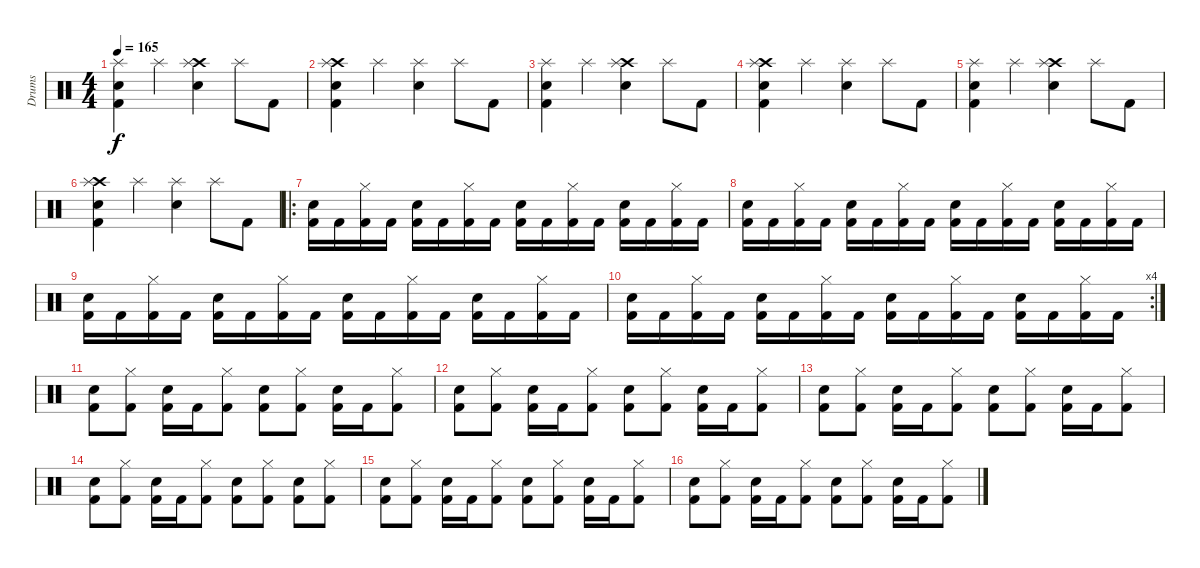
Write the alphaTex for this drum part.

\track ("Drums" "Drums") {instrument percussion}
\staff {score}
\articulation defaults
\ts (4 4)
\tempo 165
\clef neutral
\ks c
("Splash (hit)" "Snare (hit) 2" "Kick (hit) 2").4{dy f} "Splash (hit)".4 ("Crash high (hit)" "Splash (hit)" "Snare (hit) 2").4 "Splash (hit)".8 "Kick (hit) 2".8 |
("Crash high (hit)" "Splash (hit)" "Snare (hit) 2" "Kick (hit) 2").4 "Splash (hit)".4 ("Splash (hit)" "Snare (hit) 2").4 "Splash (hit)".8 "Kick (hit) 2".8 |
("Splash (hit)" "Snare (hit) 2" "Kick (hit) 2").4 "Splash (hit)".4 ("Crash high (hit)" "Splash (hit)" "Snare (hit) 2").4 "Splash (hit)".8 "Kick (hit) 2".8 |
("Crash high (hit)" "Splash (hit)" "Snare (hit) 2" "Kick (hit) 2").4 "Splash (hit)".4 ("Splash (hit)" "Snare (hit) 2").4 "Splash (hit)".8 "Kick (hit) 2".8 |
("Splash (hit)" "Snare (hit) 2" "Kick (hit) 2").4 "Splash (hit)".4 ("Crash high (hit)" "Splash (hit)" "Snare (hit) 2").4 "Splash (hit)".8 "Kick (hit) 2".8 |
("Crash high (hit)" "Splash (hit)" "Snare (hit) 2" "Kick (hit) 2").4 "Splash (hit)".4 ("Splash (hit)" "Snare (hit) 2").4 "Splash (hit)".8 "Kick (hit) 2".8 |
\ro
("Snare (hit) 2" "Kick (hit) 2").16 "Kick (hit) 2".16 ("Hi-Hat (closed)" "Kick (hit) 2").16 "Kick (hit) 2".16 ("Snare (hit) 2" "Kick (hit) 2").16 "Kick (hit) 2".16 ("Hi-Hat (closed)" "Kick (hit) 2").16 "Kick (hit) 2".16 ("Snare (hit) 2" "Kick (hit) 2").16 "Kick (hit) 2".16 ("Hi-Hat (closed)" "Kick (hit) 2").16 "Kick (hit) 2".16 ("Snare (hit) 2" "Kick (hit) 2").16 "Kick (hit) 2".16 ("Hi-Hat (closed)" "Kick (hit) 2").16 "Kick (hit) 2".16 |
("Snare (hit) 2" "Kick (hit) 2").16 "Kick (hit) 2".16 ("Hi-Hat (closed)" "Kick (hit) 2").16 "Kick (hit) 2".16 ("Snare (hit) 2" "Kick (hit) 2").16 "Kick (hit) 2".16 ("Hi-Hat (closed)" "Kick (hit) 2").16 "Kick (hit) 2".16 ("Snare (hit) 2" "Kick (hit) 2").16 "Kick (hit) 2".16 ("Hi-Hat (closed)" "Kick (hit) 2").16 "Kick (hit) 2".16 ("Snare (hit) 2" "Kick (hit) 2").16 "Kick (hit) 2".16 ("Hi-Hat (closed)" "Kick (hit) 2").16 "Kick (hit) 2".16 |
("Snare (hit) 2" "Kick (hit) 2").16 "Kick (hit) 2".16 ("Hi-Hat (closed)" "Kick (hit) 2").16 "Kick (hit) 2".16 ("Snare (hit) 2" "Kick (hit) 2").16 "Kick (hit) 2".16 ("Hi-Hat (closed)" "Kick (hit) 2").16 "Kick (hit) 2".16 ("Snare (hit) 2" "Kick (hit) 2").16 "Kick (hit) 2".16 ("Hi-Hat (closed)" "Kick (hit) 2").16 "Kick (hit) 2".16 ("Snare (hit) 2" "Kick (hit) 2").16 "Kick (hit) 2".16 ("Hi-Hat (closed)" "Kick (hit) 2").16 "Kick (hit) 2".16 |
\rc 4
("Snare (hit) 2" "Kick (hit) 2").16 "Kick (hit) 2".16 ("Hi-Hat (closed)" "Kick (hit) 2").16 "Kick (hit) 2".16 ("Snare (hit) 2" "Kick (hit) 2").16 "Kick (hit) 2".16 ("Hi-Hat (closed)" "Kick (hit) 2").16 "Kick (hit) 2".16 ("Snare (hit) 2" "Kick (hit) 2").16 "Kick (hit) 2".16 ("Hi-Hat (closed)" "Kick (hit) 2").16 "Kick (hit) 2".16 ("Snare (hit) 2" "Kick (hit) 2").16 "Kick (hit) 2".16 ("Hi-Hat (closed)" "Kick (hit) 2").16 "Kick (hit) 2".16 |
("Snare (hit) 2" "Kick (hit) 2").8 ("Hi-Hat (closed)" "Kick (hit) 2").8 ("Snare (hit) 2" "Kick (hit) 2").16 "Kick (hit) 2".16 ("Hi-Hat (closed)" "Kick (hit) 2").8 ("Snare (hit) 2" "Kick (hit) 2").8 ("Hi-Hat (closed)" "Kick (hit) 2").8 ("Snare (hit) 2" "Kick (hit) 2").16 "Kick (hit) 2".16 ("Hi-Hat (closed)" "Kick (hit) 2").8 |
("Snare (hit) 2" "Kick (hit) 2").8 ("Hi-Hat (closed)" "Kick (hit) 2").8 ("Snare (hit) 2" "Kick (hit) 2").16 "Kick (hit) 2".16 ("Hi-Hat (closed)" "Kick (hit) 2").8 ("Snare (hit) 2" "Kick (hit) 2").8 ("Hi-Hat (closed)" "Kick (hit) 2").8 ("Snare (hit) 2" "Kick (hit) 2").16 "Kick (hit) 2".16 ("Hi-Hat (closed)" "Kick (hit) 2").8 |
("Snare (hit) 2" "Kick (hit) 2").8 ("Hi-Hat (closed)" "Kick (hit) 2").8 ("Snare (hit) 2" "Kick (hit) 2").16 "Kick (hit) 2".16 ("Hi-Hat (closed)" "Kick (hit) 2").8 ("Snare (hit) 2" "Kick (hit) 2").8 ("Hi-Hat (closed)" "Kick (hit) 2").8 ("Snare (hit) 2" "Kick (hit) 2").16 "Kick (hit) 2".16 ("Hi-Hat (closed)" "Kick (hit) 2").8 |
("Snare (hit) 2" "Kick (hit) 2").8 ("Hi-Hat (closed)" "Kick (hit) 2").8 ("Snare (hit) 2" "Kick (hit) 2").16 "Kick (hit) 2".16 ("Hi-Hat (closed)" "Kick (hit) 2").8 ("Snare (hit) 2" "Kick (hit) 2").8 ("Hi-Hat (closed)" "Kick (hit) 2").8 ("Snare (hit) 2" "Kick (hit) 2").8 ("Hi-Hat (closed)" "Kick (hit) 2").8 |
("Snare (hit) 2" "Kick (hit) 2").8 ("Hi-Hat (closed)" "Kick (hit) 2").8 ("Snare (hit) 2" "Kick (hit) 2").16 "Kick (hit) 2".16 ("Hi-Hat (closed)" "Kick (hit) 2").8 ("Snare (hit) 2" "Kick (hit) 2").8 ("Hi-Hat (closed)" "Kick (hit) 2").8 ("Snare (hit) 2" "Kick (hit) 2").16 "Kick (hit) 2".16 ("Hi-Hat (closed)" "Kick (hit) 2").8 |
("Snare (hit) 2" "Kick (hit) 2").8 ("Hi-Hat (closed)" "Kick (hit) 2").8 ("Snare (hit) 2" "Kick (hit) 2").16 "Kick (hit) 2".16 ("Hi-Hat (closed)" "Kick (hit) 2").8 ("Snare (hit) 2" "Kick (hit) 2").8 ("Hi-Hat (closed)" "Kick (hit) 2").8 ("Snare (hit) 2" "Kick (hit) 2").16 "Kick (hit) 2".16 ("Hi-Hat (closed)" "Kick (hit) 2").8
